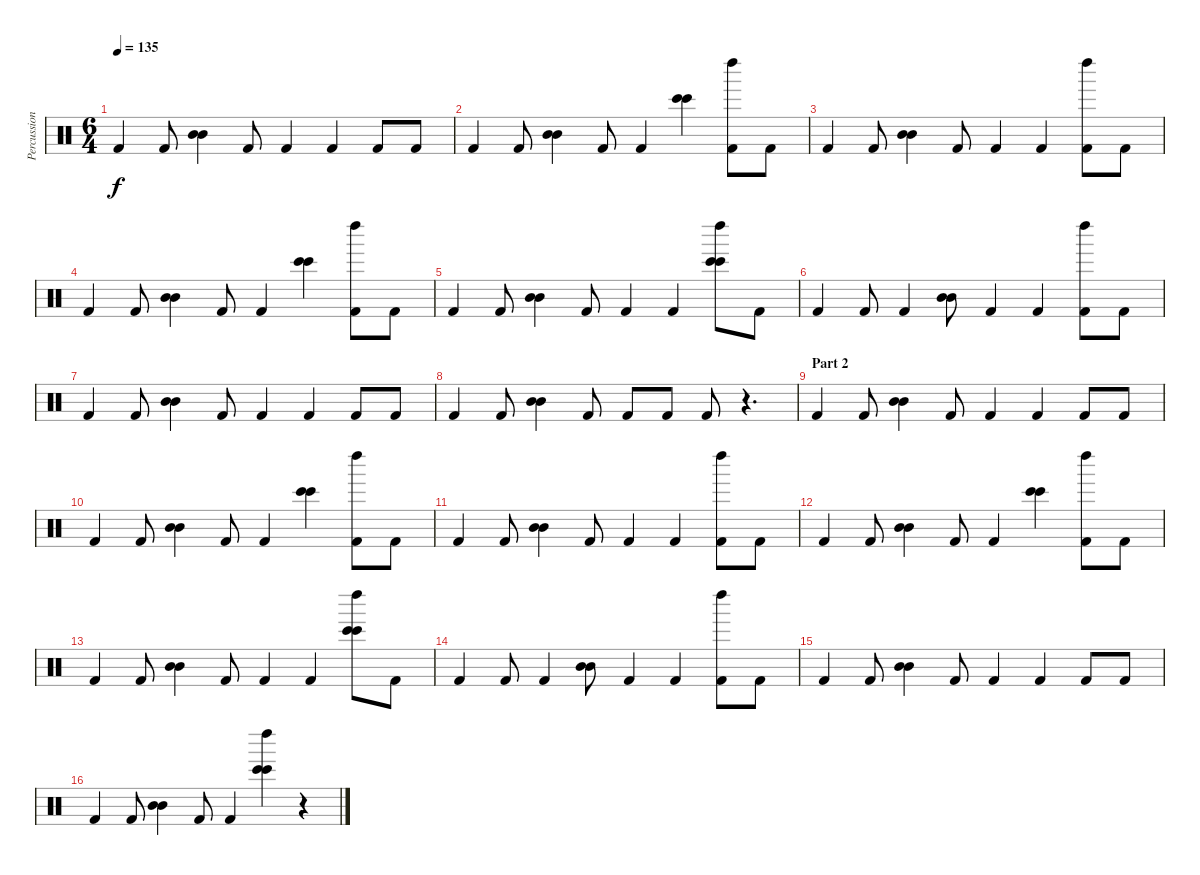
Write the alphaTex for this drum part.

\track ("Percussions" "Percussion") {instrument percussion}
\staff {score}
\articulation defaults
\ts (6 4)
\tempo 135
\clef neutral
\ks c "Kick (hit) 2".4{dy f} "Kick (hit) 2".8
("Mid Tom (hit)" "Mid Tom (hit)").4 "Kick (hit) 2".8 "Kick (hit) 2".4 "Kick (hit) 2".4 "Kick (hit) 2".8 "Kick (hit) 2".8 |
"Kick (hit) 2".4 "Kick (hit) 2".8 ("Mid Tom (hit)" "Mid Tom (hit)").4 "Kick (hit) 2".8 "Kick (hit) 2".4 ("Bongo High (hit)" "Bongo High (hit)").4 ("Kick (hit) 2" "Left Maraca (hit)").8 "Kick (hit) 2".8 |
"Kick (hit) 2".4 "Kick (hit) 2".8 ("Mid Tom (hit)" "Mid Tom (hit)").4 "Kick (hit) 2".8 "Kick (hit) 2".4 "Kick (hit) 2".4 ("Kick (hit) 2" "Left Maraca (hit)").8 "Kick (hit) 2".8 |
"Kick (hit) 2".4 "Kick (hit) 2".8 ("Mid Tom (hit)" "Mid Tom (hit)").4 "Kick (hit) 2".8 "Kick (hit) 2".4 ("Bongo High (hit)" "Bongo High (hit)").4 ("Kick (hit) 2" "Left Maraca (hit)").8 "Kick (hit) 2".8 |
"Kick (hit) 2".4 "Kick (hit) 2".8 ("Mid Tom (hit)" "Mid Tom (hit)").4 "Kick (hit) 2".8 "Kick (hit) 2".4 "Kick (hit) 2".4 ("Bongo High (hit)" "Bongo High (hit)" "Left Maraca (hit)").8 "Kick (hit) 2".8 |
"Kick (hit) 2".4 "Kick (hit) 2".8 "Kick (hit) 2".4 ("Mid Tom (hit)" "Mid Tom (hit)").8 "Kick (hit) 2".4 "Kick (hit) 2".4 ("Kick (hit) 2" "Left Maraca (hit)").8 "Kick (hit) 2".8 |
"Kick (hit) 2".4 "Kick (hit) 2".8 ("Mid Tom (hit)" "Mid Tom (hit)").4 "Kick (hit) 2".8 "Kick (hit) 2".4 "Kick (hit) 2".4 "Kick (hit) 2".8 "Kick (hit) 2".8 |
"Kick (hit) 2".4 "Kick (hit) 2".8 ("Mid Tom (hit)" "Mid Tom (hit)").4 "Kick (hit) 2".8 "Kick (hit) 2".8 "Kick (hit) 2".8 "Kick (hit) 2".8 r.4{d} |
\section ("" "Part 2")
"Kick (hit) 2".4 "Kick (hit) 2".8 ("Mid Tom (hit)" "Mid Tom (hit)").4 "Kick (hit) 2".8 "Kick (hit) 2".4 "Kick (hit) 2".4 "Kick (hit) 2".8 "Kick (hit) 2".8 |
"Kick (hit) 2".4 "Kick (hit) 2".8 ("Mid Tom (hit)" "Mid Tom (hit)").4 "Kick (hit) 2".8 "Kick (hit) 2".4 ("Bongo High (hit)" "Bongo High (hit)").4 ("Kick (hit) 2" "Left Maraca (hit)").8 "Kick (hit) 2".8 |
"Kick (hit) 2".4 "Kick (hit) 2".8 ("Mid Tom (hit)" "Mid Tom (hit)").4 "Kick (hit) 2".8 "Kick (hit) 2".4 "Kick (hit) 2".4 ("Kick (hit) 2" "Left Maraca (hit)").8 "Kick (hit) 2".8 |
"Kick (hit) 2".4 "Kick (hit) 2".8 ("Mid Tom (hit)" "Mid Tom (hit)").4 "Kick (hit) 2".8 "Kick (hit) 2".4 ("Bongo High (hit)" "Bongo High (hit)").4 ("Kick (hit) 2" "Left Maraca (hit)").8 "Kick (hit) 2".8 |
"Kick (hit) 2".4 "Kick (hit) 2".8 ("Mid Tom (hit)" "Mid Tom (hit)").4 "Kick (hit) 2".8 "Kick (hit) 2".4 "Kick (hit) 2".4 ("Bongo High (hit)" "Bongo High (hit)" "Left Maraca (hit)").8 "Kick (hit) 2".8 |
"Kick (hit) 2".4 "Kick (hit) 2".8 "Kick (hit) 2".4 ("Mid Tom (hit)" "Mid Tom (hit)").8 "Kick (hit) 2".4 "Kick (hit) 2".4 ("Kick (hit) 2" "Left Maraca (hit)").8 "Kick (hit) 2".8 |
"Kick (hit) 2".4 "Kick (hit) 2".8 ("Mid Tom (hit)" "Mid Tom (hit)").4 "Kick (hit) 2".8 "Kick (hit) 2".4 "Kick (hit) 2".4 "Kick (hit) 2".8 "Kick (hit) 2".8 |
"Kick (hit) 2".4 "Kick (hit) 2".8 ("Mid Tom (hit)" "Mid Tom (hit)").4 "Kick (hit) 2".8 "Kick (hit) 2".4 ("Bongo High (hit)" "Bongo High (hit)" "Left Maraca (hit)").4 r.4
